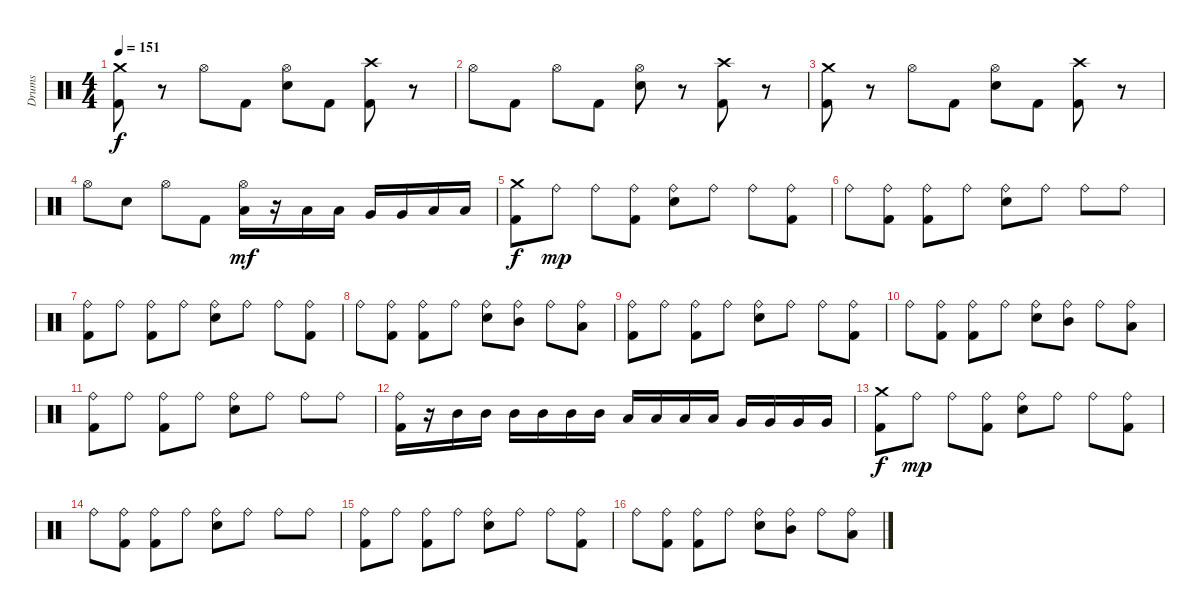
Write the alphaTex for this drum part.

\track ("Drums" "Drums") {instrument percussion}
\staff {score}
\articulation defaults
\ts (4 4)
\tempo 151
\clef neutral
\ks c
("Crash medium (hit)" "Kick (hit) 2").8{dy f} r.8 "Hi-Hat (open)".8 "Kick (hit) 2".8 ("Hi-Hat (open)" "Snare (hit) 2").8 "Kick (hit) 2".8 ("Crash high (hit)" "Kick (hit) 2").8 r.8 |
"Hi-Hat (open)".8 "Kick (hit) 2".8 "Hi-Hat (open)".8 "Kick (hit) 2".8 ("Hi-Hat (open)" "Snare (hit) 2").8 r.8 ("Crash high (hit)" "Kick (hit) 2").8 r.8 |
("Crash medium (hit)" "Kick (hit) 2").8 r.8 "Hi-Hat (open)".8 "Kick (hit) 2".8 ("Hi-Hat (open)" "Snare (hit) 2").8 "Kick (hit) 2".8 ("Crash high (hit)" "Kick (hit) 2").8 r.8 |
"Hi-Hat (open)".8 "Snare (hit) 2".8 "Hi-Hat (open)".8 "Kick (hit) 2".8 ("Hi-Hat (open)" "Low Tom (hit)").16{dy mf} r.16 "Low Tom (hit)".16 "Low Tom (hit)".16 "Very Low Tom (hit)".16 "Very Low Tom (hit)".16 "Low Floor Tom (hit)".16 "Low Floor Tom (hit)".16 |
("Crash medium (hit)" "Kick (hit) 2").8{dy f} "Ride (bell)".8{dy mp} "Ride (bell)".8 ("Ride (bell)" "Kick (hit) 2").8 ("Ride (bell)" "Snare (hit) 2").8 "Ride (bell)".8 "Ride (bell)".8 ("Ride (bell)" "Kick (hit) 2").8 |
"Ride (bell)".8 ("Ride (bell)" "Kick (hit) 2").8 ("Ride (bell)" "Kick (hit) 2").8 "Ride (bell)".8 ("Ride (bell)" "Snare (hit) 2").8 "Ride (bell)".8 "Ride (bell)".8 "Ride (bell)".8 |
("Ride (bell)" "Kick (hit) 2").8 "Ride (bell)".8 ("Ride (bell)" "Kick (hit) 2").8 "Ride (bell)".8 ("Ride (bell)" "Snare (hit) 2").8 "Ride (bell)".8 "Ride (bell)".8 ("Ride (bell)" "Kick (hit) 2").8 |
"Ride (bell)".8 ("Ride (bell)" "Kick (hit) 2").8 ("Ride (bell)" "Kick (hit) 2").8 "Ride (bell)".8 ("Ride (bell)" "Snare (hit) 2").8 ("Ride (bell)" "Mid Tom (hit)").8 "Ride (bell)".8 ("Ride (bell)" "Low Tom (hit)").8 |
("Ride (bell)" "Kick (hit) 2").8 "Ride (bell)".8 ("Ride (bell)" "Kick (hit) 2").8 "Ride (bell)".8 ("Ride (bell)" "Snare (hit) 2").8 "Ride (bell)".8 "Ride (bell)".8 ("Ride (bell)" "Kick (hit) 2").8 |
"Ride (bell)".8 ("Ride (bell)" "Kick (hit) 2").8 ("Ride (bell)" "Kick (hit) 2").8 "Ride (bell)".8 ("Ride (bell)" "Snare (hit) 2").8 ("Ride (bell)" "Mid Tom (hit)").8 "Ride (bell)".8 ("Ride (bell)" "Low Tom (hit)").8 |
("Ride (bell)" "Kick (hit) 2").8 "Ride (bell)".8 ("Ride (bell)" "Kick (hit) 2").8 "Ride (bell)".8 ("Ride (bell)" "Snare (hit) 2").8 "Ride (bell)".8 "Ride (bell)".8 "Ride (bell)".8 |
("Ride (bell)" "Kick (hit) 2").16 r.16 "Mid Tom (hit)".16 "Mid Tom (hit)".16 "Mid Tom (hit)".16 "Mid Tom (hit)".16 "Mid Tom (hit)".16 "Mid Tom (hit)".16 "Low Tom (hit)".16 "Low Tom (hit)".16 "Low Tom (hit)".16 "Low Tom (hit)".16 "Very Low Tom (hit)".16 "Very Low Tom (hit)".16 "Very Low Tom (hit)".16 "Very Low Tom (hit)".16 |
("Crash medium (hit)" "Kick (hit) 2").8{dy f} "Ride (bell)".8{dy mp} "Ride (bell)".8 ("Ride (bell)" "Kick (hit) 2").8 ("Ride (bell)" "Snare (hit) 2").8 "Ride (bell)".8 "Ride (bell)".8 ("Ride (bell)" "Kick (hit) 2").8 |
"Ride (bell)".8 ("Ride (bell)" "Kick (hit) 2").8 ("Ride (bell)" "Kick (hit) 2").8 "Ride (bell)".8 ("Ride (bell)" "Snare (hit) 2").8 "Ride (bell)".8 "Ride (bell)".8 "Ride (bell)".8 |
("Ride (bell)" "Kick (hit) 2").8 "Ride (bell)".8 ("Ride (bell)" "Kick (hit) 2").8 "Ride (bell)".8 ("Ride (bell)" "Snare (hit) 2").8 "Ride (bell)".8 "Ride (bell)".8 ("Ride (bell)" "Kick (hit) 2").8 |
"Ride (bell)".8 ("Ride (bell)" "Kick (hit) 2").8 ("Ride (bell)" "Kick (hit) 2").8 "Ride (bell)".8 ("Ride (bell)" "Snare (hit) 2").8 ("Ride (bell)" "Mid Tom (hit)").8 "Ride (bell)".8 ("Ride (bell)" "Low Tom (hit)").8
